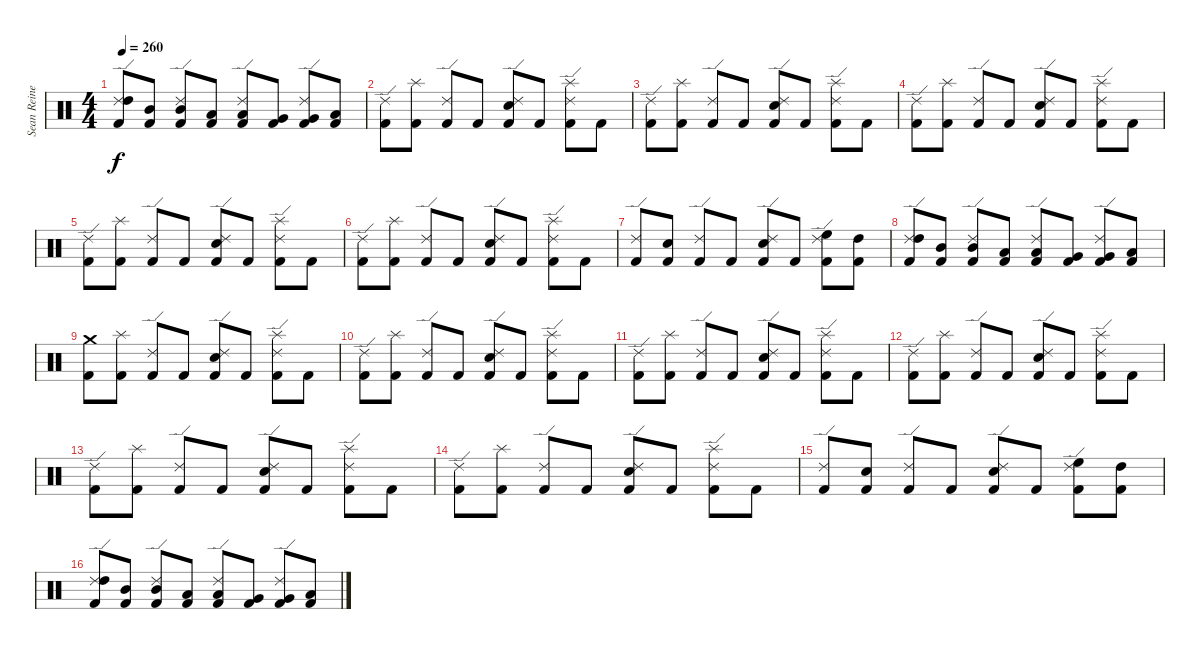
\track ("Sean Reinert" "Sean Reine") {instrument percussion}
\staff {score}
\articulation defaults
\ts (4 4)
\tempo 260
\clef neutral
\ks c
("Ride (edge) 2" "High Tom (hit)" "Kick (hit) 2").8{dy f} ("Mid Tom (hit)" "Kick (hit) 2").8 ("Ride (edge) 2" "Mid Tom (hit)" "Kick (hit) 2").8 ("Low Tom (hit)" "Kick (hit) 2").8 ("Ride (edge) 2" "Low Tom (hit)" "Kick (hit) 2").8 ("Very Low Tom (hit)" "Kick (hit) 2").8 ("Ride (edge) 2" "Very Low Tom (hit)" "Kick (hit) 2").8 ("Low Floor Tom (hit)" "Kick (hit) 2").8 |
("Ride (edge) 2" "Kick (hit) 2").8 ("Splash (hit)" "Kick (hit) 2").8 ("Ride (edge) 2" "Kick (hit) 2").8 "Kick (hit) 2".8 ("Ride (edge) 2" "Snare (hit) 2" "Kick (hit) 2").8 "Kick (hit) 2".8 ("Splash (hit)" "Ride (edge) 2" "Kick (hit) 2").8 "Kick (hit) 2".8 |
("Ride (edge) 2" "Kick (hit) 2").8 ("Splash (hit)" "Kick (hit) 2").8 ("Ride (edge) 2" "Kick (hit) 2").8 "Kick (hit) 2".8 ("Ride (edge) 2" "Snare (hit) 2" "Kick (hit) 2").8 "Kick (hit) 2".8 ("Splash (hit)" "Ride (edge) 2" "Kick (hit) 2").8 "Kick (hit) 2".8 |
("Ride (edge) 2" "Kick (hit) 2").8 ("Splash (hit)" "Kick (hit) 2").8 ("Ride (edge) 2" "Kick (hit) 2").8 "Kick (hit) 2".8 ("Ride (edge) 2" "Snare (hit) 2" "Kick (hit) 2").8 "Kick (hit) 2".8 ("Splash (hit)" "Ride (edge) 2" "Kick (hit) 2").8 "Kick (hit) 2".8 |
("Ride (edge) 2" "Kick (hit) 2").8 ("Splash (hit)" "Kick (hit) 2").8 ("Ride (edge) 2" "Kick (hit) 2").8 "Kick (hit) 2".8 ("Ride (edge) 2" "Snare (hit) 2" "Kick (hit) 2").8 "Kick (hit) 2".8 ("Splash (hit)" "Ride (edge) 2" "Kick (hit) 2").8 "Kick (hit) 2".8 |
("Ride (edge) 2" "Kick (hit) 2").8 ("Splash (hit)" "Kick (hit) 2").8 ("Ride (edge) 2" "Kick (hit) 2").8 "Kick (hit) 2".8 ("Ride (edge) 2" "Snare (hit) 2" "Kick (hit) 2").8 "Kick (hit) 2".8 ("Splash (hit)" "Ride (edge) 2" "Kick (hit) 2").8 "Kick (hit) 2".8 |
("Ride (edge) 2" "Kick (hit) 2").8 ("Snare (hit) 2" "Kick (hit) 2").8 ("Ride (edge) 2" "Kick (hit) 2").8 "Kick (hit) 2".8 ("Ride (edge) 2" "Snare (hit) 2" "Kick (hit) 2").8 "Kick (hit) 2".8 ("Ride (edge) 2" "High Floor Tom (hit)" "Kick (hit) 2").8 ("High Tom (hit)" "Kick (hit) 2").8 |
("Ride (edge) 2" "High Tom (hit)" "Kick (hit) 2").8 ("Mid Tom (hit)" "Kick (hit) 2").8 ("Ride (edge) 2" "Mid Tom (hit)" "Kick (hit) 2").8 ("Low Tom (hit)" "Kick (hit) 2").8 ("Ride (edge) 2" "Low Tom (hit)" "Kick (hit) 2").8 ("Very Low Tom (hit)" "Kick (hit) 2").8 ("Ride (edge) 2" "Very Low Tom (hit)" "Kick (hit) 2").8 ("Low Floor Tom (hit)" "Kick (hit) 2").8 |
("Crash medium (hit)" "Kick (hit) 2").8 ("Splash (hit)" "Kick (hit) 2").8 ("Ride (edge) 2" "Kick (hit) 2").8 "Kick (hit) 2".8 ("Ride (edge) 2" "Snare (hit) 2" "Kick (hit) 2").8 "Kick (hit) 2".8 ("Splash (hit)" "Ride (edge) 2" "Kick (hit) 2").8 "Kick (hit) 2".8 |
("Ride (edge) 2" "Kick (hit) 2").8 ("Splash (hit)" "Kick (hit) 2").8 ("Ride (edge) 2" "Kick (hit) 2").8 "Kick (hit) 2".8 ("Ride (edge) 2" "Snare (hit) 2" "Kick (hit) 2").8 "Kick (hit) 2".8 ("Splash (hit)" "Ride (edge) 2" "Kick (hit) 2").8 "Kick (hit) 2".8 |
("Ride (edge) 2" "Kick (hit) 2").8 ("Splash (hit)" "Kick (hit) 2").8 ("Ride (edge) 2" "Kick (hit) 2").8 "Kick (hit) 2".8 ("Ride (edge) 2" "Snare (hit) 2" "Kick (hit) 2").8 "Kick (hit) 2".8 ("Splash (hit)" "Ride (edge) 2" "Kick (hit) 2").8 "Kick (hit) 2".8 |
("Ride (edge) 2" "Kick (hit) 2").8 ("Splash (hit)" "Kick (hit) 2").8 ("Ride (edge) 2" "Kick (hit) 2").8 "Kick (hit) 2".8 ("Ride (edge) 2" "Snare (hit) 2" "Kick (hit) 2").8 "Kick (hit) 2".8 ("Splash (hit)" "Ride (edge) 2" "Kick (hit) 2").8 "Kick (hit) 2".8 |
("Ride (edge) 2" "Kick (hit) 2").8 ("Splash (hit)" "Kick (hit) 2").8 ("Ride (edge) 2" "Kick (hit) 2").8 "Kick (hit) 2".8 ("Ride (edge) 2" "Snare (hit) 2" "Kick (hit) 2").8 "Kick (hit) 2".8 ("Splash (hit)" "Ride (edge) 2" "Kick (hit) 2").8 "Kick (hit) 2".8 |
("Ride (edge) 2" "Kick (hit) 2").8 ("Splash (hit)" "Kick (hit) 2").8 ("Ride (edge) 2" "Kick (hit) 2").8 "Kick (hit) 2".8 ("Ride (edge) 2" "Snare (hit) 2" "Kick (hit) 2").8 "Kick (hit) 2".8 ("Splash (hit)" "Ride (edge) 2" "Kick (hit) 2").8 "Kick (hit) 2".8 |
("Ride (edge) 2" "Kick (hit) 2").8 ("Snare (hit) 2" "Kick (hit) 2").8 ("Ride (edge) 2" "Kick (hit) 2").8 "Kick (hit) 2".8 ("Ride (edge) 2" "Snare (hit) 2" "Kick (hit) 2").8 "Kick (hit) 2".8 ("Ride (edge) 2" "High Floor Tom (hit)" "Kick (hit) 2").8 ("High Tom (hit)" "Kick (hit) 2").8 |
("Ride (edge) 2" "High Tom (hit)" "Kick (hit) 2").8 ("Mid Tom (hit)" "Kick (hit) 2").8 ("Ride (edge) 2" "Mid Tom (hit)" "Kick (hit) 2").8 ("Low Tom (hit)" "Kick (hit) 2").8 ("Ride (edge) 2" "Low Tom (hit)" "Kick (hit) 2").8 ("Very Low Tom (hit)" "Kick (hit) 2").8 ("Ride (edge) 2" "Very Low Tom (hit)" "Kick (hit) 2").8 ("Low Floor Tom (hit)" "Kick (hit) 2").8
